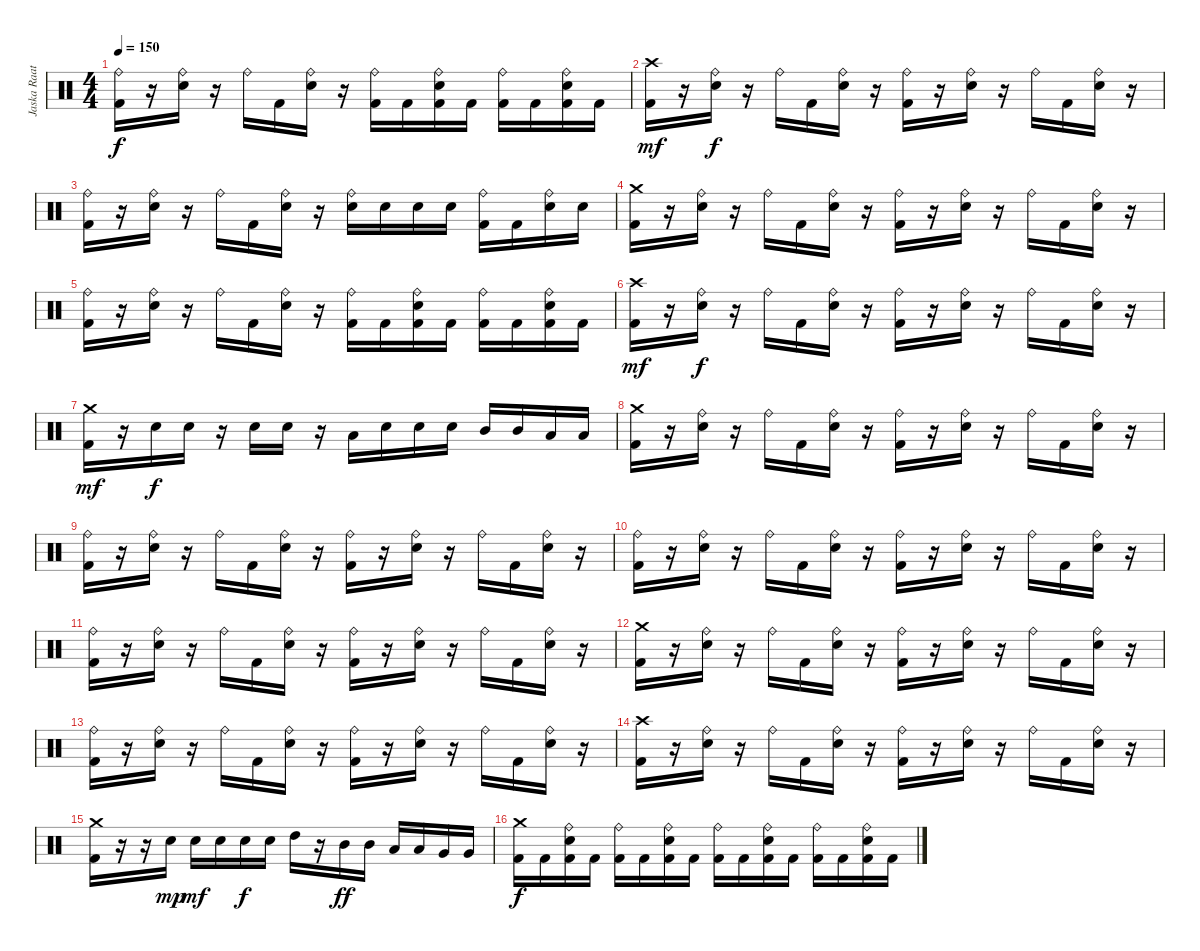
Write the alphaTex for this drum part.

\track ("Jaska Raatikainen" "Jaska Raat") {instrument percussion}
\staff {score}
\articulation defaults
\ts (4 4)
\tempo 150
\clef neutral
\ks c
("Ride (bell)" "Kick (hit) 2").16{dy f} r.16 ("Ride (bell)" "Electric Snare (hit)").16 r.16 "Ride (bell)".16 "Kick (hit) 2".16 ("Ride (bell)" "Electric Snare (hit)").16 r.16 ("Ride (bell)" "Kick (hit) 2").16 "Kick (hit) 2".16 ("Ride (bell)" "Electric Snare (hit)" "Kick (hit) 2").16 "Kick (hit) 2".16 ("Ride (bell)" "Kick (hit) 2").16 "Kick (hit) 2".16 ("Ride (bell)" "Electric Snare (hit)" "Kick (hit) 2").16 "Kick (hit) 2".16 |
("Crash high (hit)" "Kick (hit) 2").16{dy mf} r.16 ("Ride (bell)" "Electric Snare (hit)").16{dy f} r.16 "Ride (bell)".16 "Kick (hit) 2".16 ("Ride (bell)" "Electric Snare (hit)").16 r.16 ("Ride (bell)" "Kick (hit) 2").16 r.16 ("Ride (bell)" "Electric Snare (hit)").16 r.16 "Ride (bell)".16 "Kick (hit) 2".16 ("Ride (bell)" "Electric Snare (hit)").16 r.16 |
("Ride (bell)" "Kick (hit) 2").16 r.16 ("Ride (bell)" "Electric Snare (hit)").16 r.16 "Ride (bell)".16 "Kick (hit) 2".16 ("Ride (bell)" "Electric Snare (hit)").16 r.16 ("Ride (bell)" "Electric Snare (hit)").16 "Electric Snare (hit)".16 "Electric Snare (hit)".16 "Electric Snare (hit)".16 ("Ride (bell)" "Kick (hit) 2").16 "Kick (hit) 2".16 ("Ride (bell)" "Electric Snare (hit)").16 "Electric Snare (hit)".16 |
("Crash medium (hit)" "Kick (hit) 2").16 r.16 ("Ride (bell)" "Electric Snare (hit)").16 r.16 "Ride (bell)".16 "Kick (hit) 2".16 ("Ride (bell)" "Electric Snare (hit)").16 r.16 ("Ride (bell)" "Kick (hit) 2").16 r.16 ("Ride (bell)" "Electric Snare (hit)").16 r.16 "Ride (bell)".16 "Kick (hit) 2".16 ("Ride (bell)" "Electric Snare (hit)").16 r.16 |
("Ride (bell)" "Kick (hit) 2").16 r.16 ("Ride (bell)" "Electric Snare (hit)").16 r.16 "Ride (bell)".16 "Kick (hit) 2".16 ("Ride (bell)" "Electric Snare (hit)").16 r.16 ("Ride (bell)" "Kick (hit) 2").16 "Kick (hit) 2".16 ("Ride (bell)" "Electric Snare (hit)" "Kick (hit) 2").16 "Kick (hit) 2".16 ("Ride (bell)" "Kick (hit) 2").16 "Kick (hit) 2".16 ("Ride (bell)" "Electric Snare (hit)" "Kick (hit) 2").16 "Kick (hit) 2".16 |
("Crash high (hit)" "Kick (hit) 2").16{dy mf} r.16 ("Ride (bell)" "Electric Snare (hit)").16{dy f} r.16 "Ride (bell)".16 "Kick (hit) 2".16 ("Ride (bell)" "Electric Snare (hit)").16 r.16 ("Ride (bell)" "Kick (hit) 2").16 r.16 ("Ride (bell)" "Electric Snare (hit)").16 r.16 "Ride (bell)".16 "Kick (hit) 2".16 ("Ride (bell)" "Electric Snare (hit)").16 r.16 |
("Crash medium (hit)" "Kick (hit) 2").16{dy mf} r.16 "Electric Snare (hit)".16{dy f} "Electric Snare (hit)".16 r.16 "Electric Snare (hit)".16 "Electric Snare (hit)".16 r.16 "Low Tom (hit)".16 "Electric Snare (hit)".16 "Electric Snare (hit)".16 "Electric Snare (hit)".16 "Mid Tom (hit)".16 "Mid Tom (hit)".16 "Low Tom (hit)".16 "Low Tom (hit)".16 |
("Crash medium (hit)" "Kick (hit) 2").16 r.16 ("Ride (bell)" "Electric Snare (hit)").16 r.16 "Ride (bell)".16 "Kick (hit) 2".16 ("Ride (bell)" "Electric Snare (hit)").16 r.16 ("Ride (bell)" "Kick (hit) 2").16 r.16 ("Ride (bell)" "Electric Snare (hit)").16 r.16 "Ride (bell)".16 "Kick (hit) 2".16 ("Ride (bell)" "Electric Snare (hit)").16 r.16 |
("Ride (bell)" "Kick (hit) 2").16 r.16 ("Ride (bell)" "Electric Snare (hit)").16 r.16 "Ride (bell)".16 "Kick (hit) 2".16 ("Ride (bell)" "Electric Snare (hit)").16 r.16 ("Ride (bell)" "Kick (hit) 2").16 r.16 ("Ride (bell)" "Electric Snare (hit)").16 r.16 "Ride (bell)".16 "Kick (hit) 2".16 ("Ride (bell)" "Electric Snare (hit)").16 r.16 |
("Ride (bell)" "Kick (hit) 2").16 r.16 ("Ride (bell)" "Electric Snare (hit)").16 r.16 "Ride (bell)".16 "Kick (hit) 2".16 ("Ride (bell)" "Electric Snare (hit)").16 r.16 ("Ride (bell)" "Kick (hit) 2").16 r.16 ("Ride (bell)" "Electric Snare (hit)").16 r.16 "Ride (bell)".16 "Kick (hit) 2".16 ("Ride (bell)" "Electric Snare (hit)").16 r.16 |
("Ride (bell)" "Kick (hit) 2").16 r.16 ("Ride (bell)" "Electric Snare (hit)").16 r.16 "Ride (bell)".16 "Kick (hit) 2".16 ("Ride (bell)" "Electric Snare (hit)").16 r.16 ("Ride (bell)" "Kick (hit) 2").16 r.16 ("Ride (bell)" "Electric Snare (hit)").16 r.16 "Ride (bell)".16 "Kick (hit) 2".16 ("Ride (bell)" "Electric Snare (hit)").16 r.16 |
("Crash medium (hit)" "Kick (hit) 2").16 r.16 ("Ride (bell)" "Electric Snare (hit)").16 r.16 "Ride (bell)".16 "Kick (hit) 2".16 ("Ride (bell)" "Electric Snare (hit)").16 r.16 ("Ride (bell)" "Kick (hit) 2").16 r.16 ("Ride (bell)" "Electric Snare (hit)").16 r.16 "Ride (bell)".16 "Kick (hit) 2".16 ("Ride (bell)" "Electric Snare (hit)").16 r.16 |
("Ride (bell)" "Kick (hit) 2").16 r.16 ("Ride (bell)" "Electric Snare (hit)").16 r.16 "Ride (bell)".16 "Kick (hit) 2".16 ("Ride (bell)" "Electric Snare (hit)").16 r.16 ("Ride (bell)" "Kick (hit) 2").16 r.16 ("Ride (bell)" "Electric Snare (hit)").16 r.16 "Ride (bell)".16 "Kick (hit) 2".16 ("Ride (bell)" "Electric Snare (hit)").16 r.16 |
("Crash high (hit)" "Kick (hit) 2").16 r.16 ("Ride (bell)" "Electric Snare (hit)").16 r.16 "Ride (bell)".16 "Kick (hit) 2".16 ("Ride (bell)" "Electric Snare (hit)").16 r.16 ("Ride (bell)" "Kick (hit) 2").16 r.16 ("Ride (bell)" "Electric Snare (hit)").16 r.16 "Ride (bell)".16 "Kick (hit) 2".16 ("Ride (bell)" "Electric Snare (hit)").16 r.16 |
("Crash medium (hit)" "Kick (hit) 2").16 r.16 r.16 "Electric Snare (hit)".16{dy mp} "Electric Snare (hit)".16{dy mf} "Electric Snare (hit)".16 "Electric Snare (hit)".16{dy f} "Electric Snare (hit)".16 "High Tom (hit)".16 r.16 "Mid Tom (hit)".16{dy ff} "Mid Tom (hit)".16 "Low Tom (hit)".16 "Low Tom (hit)".16 "Very Low Tom (hit)".16 "Very Low Tom (hit)".16 |
("Crash medium (hit)" "Kick (hit) 2").16{dy f} "Kick (hit) 2".16 ("Ride (bell)" "Electric Snare (hit)" "Kick (hit) 2").16 "Kick (hit) 2".16 ("Ride (bell)" "Kick (hit) 2").16 "Kick (hit) 2".16 ("Ride (bell)" "Electric Snare (hit)" "Kick (hit) 2").16 "Kick (hit) 2".16 ("Ride (bell)" "Kick (hit) 2").16 "Kick (hit) 2".16 ("Ride (bell)" "Electric Snare (hit)" "Kick (hit) 2").16 "Kick (hit) 2".16 ("Ride (bell)" "Kick (hit) 2").16 "Kick (hit) 2".16 ("Ride (bell)" "Electric Snare (hit)" "Kick (hit) 2").16 "Kick (hit) 2".16
